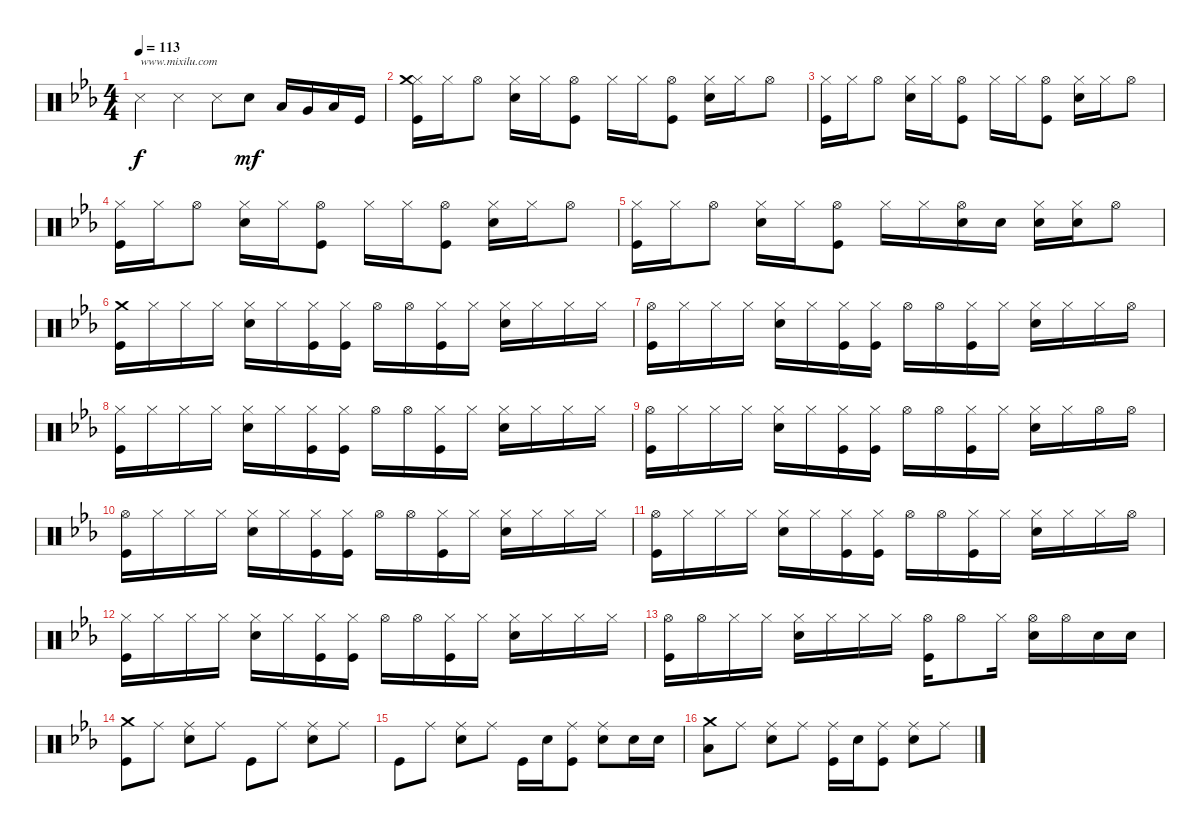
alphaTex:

\track "" {instrument percussion}
\staff {score}
\articulation defaults
\ts (4 4)
\tempo 113
\clef neutral
\ks eb "Snare (side stick) 3".4{txt "www.mixilu.com" dy f} "Snare (side stick) 3".4 "Snare (side stick) 3".8 "Snare (hit) 2".8{dy mf} "Low Tom (hit)".16 "Very Low Tom (hit)".16 "Low Floor Tom (hit)".16 "Kick (hit)".16
|
("Hi-Hat (closed)" "Kick (hit)" "Crash medium (hit)").16 "Hi-Hat (closed)".16 "Hi-Hat (open)".8 ("Hi-Hat (closed)" "Snare (hit) 2").16 "Hi-Hat (closed)".16 ("Hi-Hat (open)" "Kick (hit)").8 "Hi-Hat (closed)".16 "Hi-Hat (closed)".16 ("Hi-Hat (open)" "Kick (hit)").8 ("Hi-Hat (closed)" "Snare (hit) 2").16 "Hi-Hat (closed)".16 "Hi-Hat (open)".8 |
("Hi-Hat (closed)" "Kick (hit)").16 "Hi-Hat (closed)".16 "Hi-Hat (open)".8 ("Hi-Hat (closed)" "Snare (hit) 2").16 "Hi-Hat (closed)".16 ("Hi-Hat (open)" "Kick (hit)").8 "Hi-Hat (closed)".16 "Hi-Hat (closed)".16 ("Hi-Hat (open)" "Kick (hit)").8 ("Hi-Hat (closed)" "Snare (hit) 2").16 "Hi-Hat (closed)".16 "Hi-Hat (open)".8 |
("Hi-Hat (closed)" "Kick (hit)").16 "Hi-Hat (closed)".16 "Hi-Hat (open)".8 ("Hi-Hat (closed)" "Snare (hit) 2").16 "Hi-Hat (closed)".16 ("Hi-Hat (open)" "Kick (hit)").8 "Hi-Hat (closed)".16 "Hi-Hat (closed)".16 ("Hi-Hat (open)" "Kick (hit)").8 ("Hi-Hat (closed)" "Snare (hit) 2").16 "Hi-Hat (closed)".16 "Hi-Hat (open)".8 |
("Hi-Hat (closed)" "Kick (hit)").16 "Hi-Hat (closed)".16 "Hi-Hat (open)".8 ("Hi-Hat (closed)" "Snare (hit) 2").16 "Hi-Hat (closed)".16 ("Hi-Hat (open)" "Kick (hit)").8 "Hi-Hat (closed)".16 "Hi-Hat (closed)".16 ("Hi-Hat (open)" "Snare (hit) 2").16 "Snare (hit) 2".16 ("Hi-Hat (closed)" "Snare (hit) 2").16 ("Hi-Hat (closed)" "Snare (hit) 2").16 "Hi-Hat (open)".8 |
("Crash medium (hit)" "Kick (hit)").16 "Hi-Hat (closed)".16 "Hi-Hat (closed)".16 "Hi-Hat (closed)".16 ("Hi-Hat (closed)" "Snare (hit) 2").16 "Hi-Hat (closed)".16 ("Hi-Hat (closed)" "Kick (hit)").16 ("Hi-Hat (closed)" "Kick (hit)").16 "Hi-Hat (open)".16 "Hi-Hat (open)".16 ("Hi-Hat (closed)" "Kick (hit)").16 "Hi-Hat (closed)".16 ("Hi-Hat (closed)" "Snare (hit) 2").16 "Hi-Hat (closed)".16 "Hi-Hat (closed)".16 "Hi-Hat (closed)".16 |
("Hi-Hat (open)" "Kick (hit)").16 "Hi-Hat (closed)".16 "Hi-Hat (closed)".16 "Hi-Hat (closed)".16 ("Hi-Hat (closed)" "Snare (hit) 2").16 "Hi-Hat (closed)".16 ("Hi-Hat (closed)" "Kick (hit)").16 ("Hi-Hat (closed)" "Kick (hit)").16 "Hi-Hat (open)".16 "Hi-Hat (open)".16 ("Hi-Hat (closed)" "Kick (hit)").16 "Hi-Hat (closed)".16 ("Hi-Hat (closed)" "Snare (hit) 2").16 "Hi-Hat (closed)".16 "Hi-Hat (closed)".16 "Hi-Hat (open)".16 |
("Hi-Hat (closed)" "Kick (hit)").16 "Hi-Hat (closed)".16 "Hi-Hat (closed)".16 "Hi-Hat (closed)".16 ("Hi-Hat (closed)" "Snare (hit) 2").16 "Hi-Hat (closed)".16 ("Hi-Hat (closed)" "Kick (hit)").16 ("Hi-Hat (closed)" "Kick (hit)").16 "Hi-Hat (open)".16 "Hi-Hat (open)".16 ("Hi-Hat (closed)" "Kick (hit)").16 "Hi-Hat (closed)".16 ("Hi-Hat (closed)" "Snare (hit) 2").16 "Hi-Hat (closed)".16 "Hi-Hat (closed)".16 "Hi-Hat (closed)".16 |
("Hi-Hat (open)" "Kick (hit)").16 "Hi-Hat (closed)".16 "Hi-Hat (closed)".16 "Hi-Hat (closed)".16 ("Hi-Hat (closed)" "Snare (hit) 2").16 "Hi-Hat (closed)".16 ("Hi-Hat (closed)" "Kick (hit)").16 ("Hi-Hat (closed)" "Kick (hit)").16 "Hi-Hat (open)".16 "Hi-Hat (open)".16 ("Hi-Hat (closed)" "Kick (hit)").16 "Hi-Hat (closed)".16 ("Hi-Hat (closed)" "Snare (hit) 2").16 "Hi-Hat (closed)".16 "Hi-Hat (open)".16 "Hi-Hat (open)".16 |
("Hi-Hat (open)" "Kick (hit)").16 "Hi-Hat (closed)".16 "Hi-Hat (closed)".16 "Hi-Hat (closed)".16 ("Hi-Hat (closed)" "Snare (hit) 2").16 "Hi-Hat (closed)".16 ("Hi-Hat (closed)" "Kick (hit)").16 ("Hi-Hat (closed)" "Kick (hit)").16 "Hi-Hat (open)".16 "Hi-Hat (open)".16 ("Hi-Hat (closed)" "Kick (hit)").16 "Hi-Hat (closed)".16 ("Hi-Hat (closed)" "Snare (hit) 2").16 "Hi-Hat (closed)".16 "Hi-Hat (closed)".16 "Hi-Hat (closed)".16 |
("Hi-Hat (open)" "Kick (hit)").16 "Hi-Hat (closed)".16 "Hi-Hat (closed)".16 "Hi-Hat (closed)".16 ("Hi-Hat (closed)" "Snare (hit) 2").16 "Hi-Hat (closed)".16 ("Hi-Hat (closed)" "Kick (hit)").16 ("Hi-Hat (closed)" "Kick (hit)").16 "Hi-Hat (open)".16 "Hi-Hat (open)".16 ("Hi-Hat (closed)" "Kick (hit)").16 "Hi-Hat (closed)".16 ("Hi-Hat (closed)" "Snare (hit) 2").16 "Hi-Hat (closed)".16 "Hi-Hat (closed)".16 "Hi-Hat (open)".16 |
("Hi-Hat (closed)" "Kick (hit)").16 "Hi-Hat (closed)".16 "Hi-Hat (closed)".16 "Hi-Hat (closed)".16 ("Hi-Hat (closed)" "Snare (hit) 2").16 "Hi-Hat (closed)".16 ("Hi-Hat (closed)" "Kick (hit)").16 ("Hi-Hat (closed)" "Kick (hit)").16 "Hi-Hat (open)".16 "Hi-Hat (open)".16 ("Hi-Hat (closed)" "Kick (hit)").16 "Hi-Hat (closed)".16 ("Hi-Hat (closed)" "Snare (hit) 2").16 "Hi-Hat (closed)".16 "Hi-Hat (closed)".16 "Hi-Hat (closed)".16 |
("Hi-Hat (open)" "Kick (hit)").16 "Hi-Hat (open)".16 "Hi-Hat (closed)".16 "Hi-Hat (closed)".16 ("Hi-Hat (closed)" "Snare (hit) 2").16 "Hi-Hat (closed)".16 "Hi-Hat (closed)".16 "Hi-Hat (closed)".16 ("Hi-Hat (open)" "Kick (hit)").16 "Hi-Hat (open)".8 "Hi-Hat (closed)".16 ("Hi-Hat (open)" "Snare (hit) 2").16 "Hi-Hat (open)".16 "Snare (hit) 2".16 "Snare (hit) 2".16 |
("Crash medium (hit)" "Kick (hit)").8 "Ride (middle)".8 ("Ride (middle)" "Snare (hit) 2").8 "Ride (middle)".8 "Kick (hit)".8 "Ride (middle)".8 ("Ride (middle)" "Snare (hit) 2").8 "Ride (middle)".8 |
"Kick (hit)".8 "Ride (middle)".8 ("Ride (middle)" "Snare (hit) 2").8 "Ride (middle)".8 "Kick (hit)".16 "Snare (hit) 2".16 ("Kick (hit)" "Ride (middle)").8 ("Snare (hit) 2" "Ride (middle)").8 "Snare (hit) 2".16 "Snare (hit) 2".16 |
("Low Floor Tom (hit)" "Crash medium (hit)").8 "Ride (middle)".8 ("Ride (middle)" "Snare (hit) 2").8 "Ride (middle)".8 ("Kick (hit)" "Ride (middle)").16 "Snare (hit) 2".16 ("Kick (hit)" "Ride (middle)").8 ("Snare (hit) 2" "Ride (middle)").8 "Ride (middle)".8
